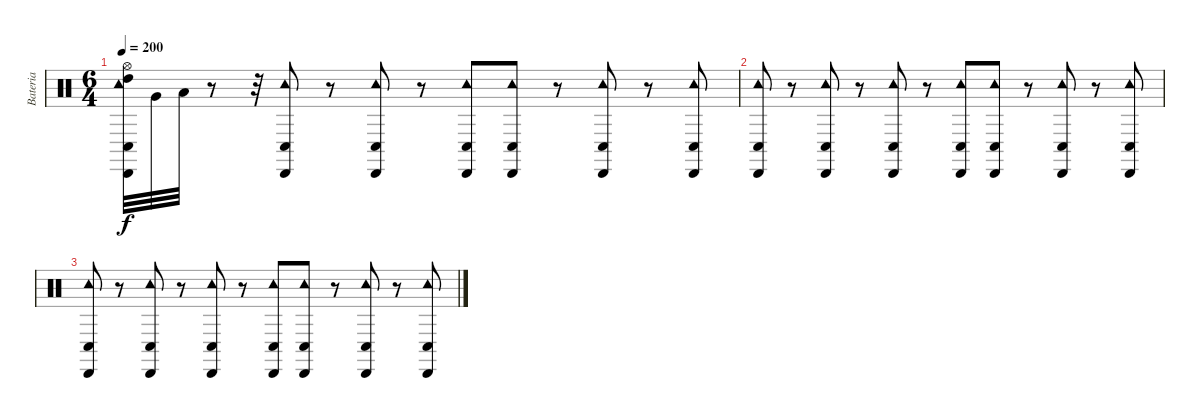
\track ("Bateria" "Bateria") {instrument percussion}
\staff {score}
\articulation defaults
\ts (6 4)
\tempo 200
\clef neutral
\ks c
("Hi-Hat (open)" "High Tom (hit)" "Conga low (hit)" "Cabasa (hit)" "Tambourine (hit)").32{dy f} "Very Low Tom (hit)".32 "Low Floor Tom (hit)".32 r.8 r.32 ("Conga low (hit)" "Cabasa (hit)" "Tambourine (hit)").8 r.8 ("Conga low (hit)" "Cabasa (hit)" "Tambourine (hit)").8 r.8 ("Conga low (hit)" "Cabasa (hit)" "Tambourine (hit)").8 ("Conga low (hit)" "Cabasa (hit)" "Tambourine (hit)").8 r.8 ("Conga low (hit)" "Cabasa (hit)" "Tambourine (hit)").8 r.8 ("Conga low (hit)" "Cabasa (hit)" "Tambourine (hit)").8 |
("Conga low (hit)" "Cabasa (hit)" "Tambourine (hit)").8 r.8 ("Conga low (hit)" "Cabasa (hit)" "Tambourine (hit)").8 r.8 ("Conga low (hit)" "Cabasa (hit)" "Tambourine (hit)").8 r.8 ("Conga low (hit)" "Cabasa (hit)" "Tambourine (hit)").8 ("Conga low (hit)" "Cabasa (hit)" "Tambourine (hit)").8 r.8 ("Conga low (hit)" "Cabasa (hit)" "Tambourine (hit)").8 r.8 ("Conga low (hit)" "Cabasa (hit)" "Tambourine (hit)").8 |
("Conga low (hit)" "Cabasa (hit)" "Tambourine (hit)").8 r.8 ("Conga low (hit)" "Cabasa (hit)" "Tambourine (hit)").8 r.8 ("Conga low (hit)" "Cabasa (hit)" "Tambourine (hit)").8 r.8 ("Conga low (hit)" "Cabasa (hit)" "Tambourine (hit)").8 ("Conga low (hit)" "Cabasa (hit)" "Tambourine (hit)").8 r.8 ("Conga low (hit)" "Cabasa (hit)" "Tambourine (hit)").8 r.8 ("Conga low (hit)" "Cabasa (hit)" "Tambourine (hit)").8
